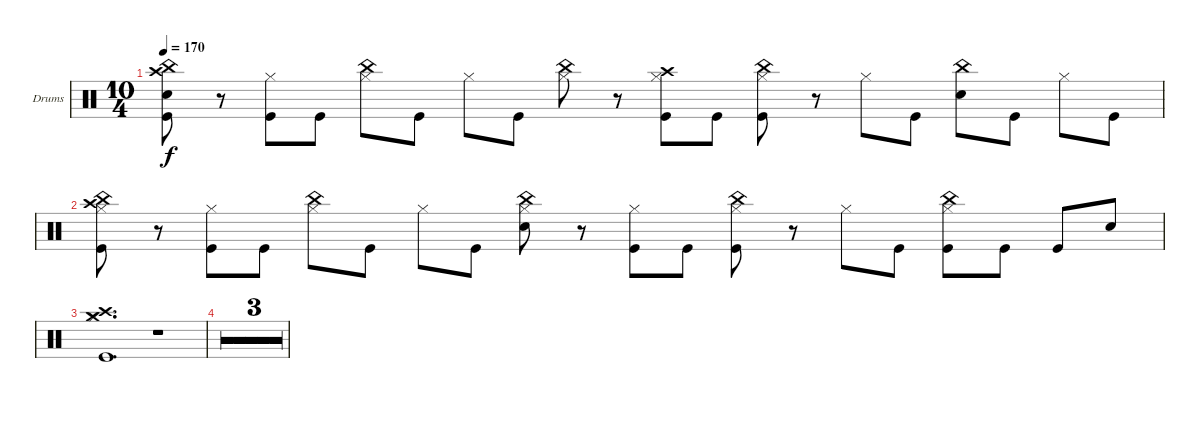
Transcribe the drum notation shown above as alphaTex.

\bracketExtendMode groupsimilarinstruments
\firstSystemTrackNameOrientation horizontal
\otherSystemsTrackNameOrientation horizontal
\track ("Drumkit" "Drums") {multiBarRest instrument percussion}
\staff {score}
\articulation defaults
\ts (10 4)
\tempo 170
\clef neutral
\ks c
("China (hit)" "Crash high (hit)" "Snare (hit) 2" "Kick (hit)").8{dy f} r.8 ("Hi-Hat (closed)" "Kick (hit)").8 "Kick (hit)".8 ("China (hit)" "Hi-Hat (closed)").8 "Kick (hit)".8 "Hi-Hat (closed)".8 "Kick (hit)".8 ("China (hit)" "Hi-Hat (closed)").8 r.8 ("Crash high (hit)" "Hi-Hat (closed)" "Kick (hit)").8 "Kick (hit)".8 ("China (hit)" "Hi-Hat (closed)" "Kick (hit)").8 r.8 "Hi-Hat (closed)".8 "Kick (hit)".8 ("China (hit)" "Snare (hit) 2").8 "Kick (hit)".8 "Hi-Hat (closed)".8 "Kick (hit)".8 |
("China (hit)" "Crash high (hit)" "Hi-Hat (closed)" "Kick (hit)").8 r.8 ("Hi-Hat (closed)" "Kick (hit)").8 "Kick (hit)".8 ("China (hit)" "Hi-Hat (closed)").8 "Kick (hit)".8 "Hi-Hat (closed)".8 "Kick (hit)".8 ("China (hit)" "Snare (hit) 2" "Hi-Hat (closed)").8 r.8 ("Hi-Hat (closed)" "Kick (hit)").8 "Kick (hit)".8 ("China (hit)" "Hi-Hat (closed)" "Kick (hit)").8 r.8 "Hi-Hat (closed)".8 "Kick (hit)".8 ("China (hit)" "Hi-Hat (closed)" "Kick (hit)").8 "Kick (hit)".8 "Kick (hit)".8 "Snare (hit) 2".8 |
("Crash medium (hit)" "Crash high (hit)" "Hi-Hat (closed)" "Kick (hit)").1{d} r.1 |
r.1{d} r.1 |
r.1{d} r.1 |
r.1{d} r.1
